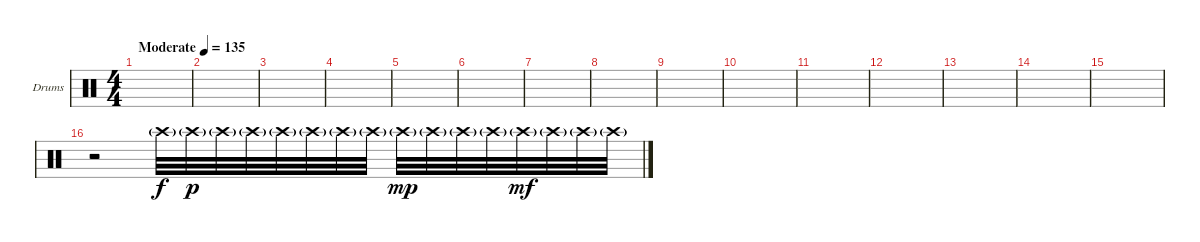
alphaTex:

\bracketExtendMode groupsimilarinstruments
\firstSystemTrackNameOrientation horizontal
\otherSystemsTrackNameOrientation horizontal
\track ("Drumkit" "Drums") {instrument percussion}
\staff {score}
\articulation defaults
\ts (4 4)
\beaming (8 2 2 2 2)
\tempo (135 "Moderate")
\clef neutral
\scale
0.472222
\ks c
|
\scale
0.263889 |
\scale
0.263889 |
\scale
0.333333 |
\scale
0.333333 |
\scale
0.333333 |
\scale
0.333333 |
\scale
0.333333 |
\scale
0.333333 |
\scale
0.333333 |
\scale
0.333333 |
\scale
0.333333 |
\scale
0.333333 |
\scale
0.333333 |
\scale
0.333333 |
\scale
0.333333 r.2 "Crash high (hit)"{g}.32 "Crash high (hit)"{g}.32{dy p} "Crash high (hit)"{g}.32 "Crash high (hit)"{g}.32 "Crash high (hit)"{g}.32 "Crash high (hit)"{g}.32 "Crash high (hit)"{g}.32 "Crash high (hit)"{g}.32 "Crash high (hit)"{g}.32{dy mp} "Crash high (hit)"{g}.32 "Crash high (hit)"{g}.32 "Crash high (hit)"{g}.32 "Crash high (hit)"{g}.32{dy mf} "Crash high (hit)"{g}.32 "Crash high (hit)"{g}.32 "Crash high (hit)"{g}.32
